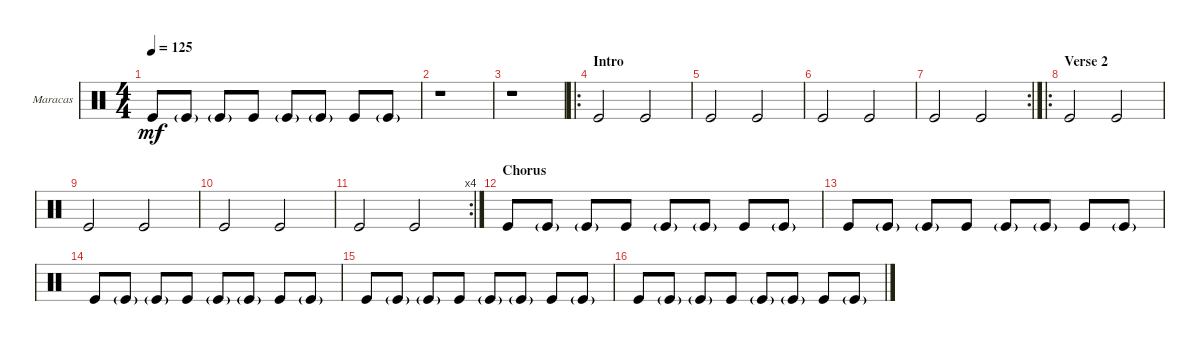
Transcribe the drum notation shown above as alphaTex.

\defaultSystemsLayout 4
\bracketExtendMode groupsimilarinstruments
\firstSystemTrackNameOrientation horizontal
\otherSystemsTrackNameOrientation horizontal
\track ("Maracas" "Maracas") {instrument percussion}
\staff {score}
\articulation defaults
\ts (4 4)
\tempo 125
\clef neutral
\scale
0.333333
\ks c "Kick (hit)".8{dy mf} "Kick (hit)"{g}.8 "Kick (hit)"{g}.8 "Kick (hit)".8 "Kick (hit)"{g}.8 "Kick (hit)"{g}.8 "Kick (hit)".8 "Kick (hit)"{g}.8
|
\scale
0.333333 r.1 |
\scale
0.311111 r.1 |
\ro
\section ("" "Intro")
\scale
0.377778 "Kick (hit)".2 "Kick (hit)".2 |
\scale
0.311111 "Kick (hit)".2 "Kick (hit)".2 |
\scale
0.301075 "Kick (hit)".2 "Kick (hit)".2 |
\rc 2
\scale
0.333333 "Kick (hit)".2 "Kick (hit)".2 |
\ro
\section ("" "Verse 2")
\scale
0.365591 "Kick (hit)".2 "Kick (hit)".2 |
\scale
0.321839 "Kick (hit)".2 "Kick (hit)".2 |
\scale
0.321839 "Kick (hit)".2 "Kick (hit)".2 |
\rc 4
\scale
0.356322 "Kick (hit)".2 "Kick (hit)".2 |
\section ("" "Chorus")
\scale
0.333333 "Kick (hit)".8 "Kick (hit)"{g}.8 "Kick (hit)"{g}.8 "Kick (hit)".8 "Kick (hit)"{g}.8 "Kick (hit)"{g}.8 "Kick (hit)".8 "Kick (hit)"{g}.8 |
\scale
0.333333 "Kick (hit)".8 "Kick (hit)"{g}.8 "Kick (hit)"{g}.8 "Kick (hit)".8 "Kick (hit)"{g}.8 "Kick (hit)"{g}.8 "Kick (hit)".8 "Kick (hit)"{g}.8 |
\scale
0.333333 "Kick (hit)".8 "Kick (hit)"{g}.8 "Kick (hit)"{g}.8 "Kick (hit)".8 "Kick (hit)"{g}.8 "Kick (hit)"{g}.8 "Kick (hit)".8 "Kick (hit)"{g}.8 |
\scale
0.333333 "Kick (hit)".8 "Kick (hit)"{g}.8 "Kick (hit)"{g}.8 "Kick (hit)".8 "Kick (hit)"{g}.8 "Kick (hit)"{g}.8 "Kick (hit)".8 "Kick (hit)"{g}.8 |
\scale
0.333333 "Kick (hit)".8 "Kick (hit)"{g}.8 "Kick (hit)"{g}.8 "Kick (hit)".8 "Kick (hit)"{g}.8 "Kick (hit)"{g}.8 "Kick (hit)".8 "Kick (hit)"{g}.8
